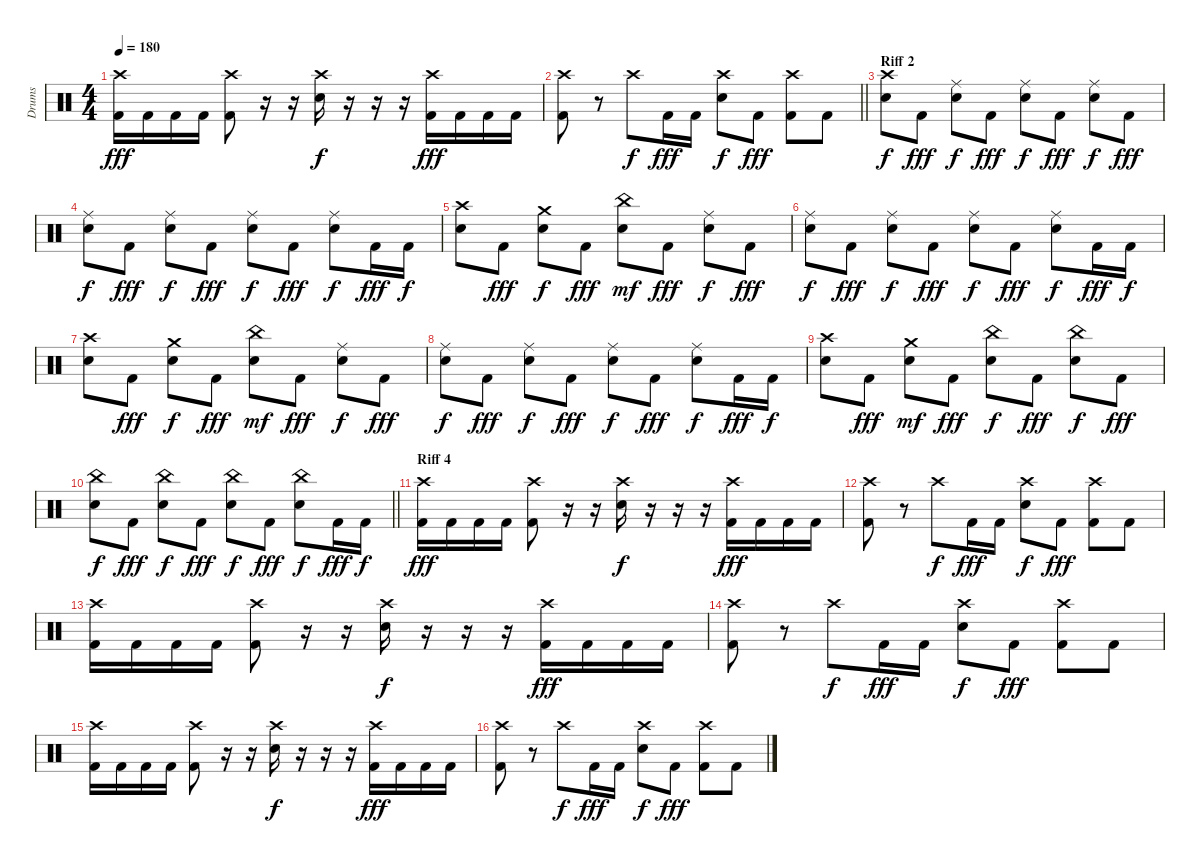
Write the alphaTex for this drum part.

\track ("Drums" "Drums") {instrument percussion}
\staff {score}
\articulation defaults
\ts (4 4)
\tempo 180
\clef neutral
\ks c
("Crash high (hit)" "Kick (hit) 2").16{dy fff} "Kick (hit) 2".16 "Kick (hit) 2".16 "Kick (hit) 2".16 ("Crash high (hit)" "Kick (hit) 2").8 r.16 r.16 ("Crash high (hit)" "Electric Snare (hit)").16{dy f} r.16 r.16 r.16 ("Crash high (hit)" "Kick (hit) 2").16{dy fff} "Kick (hit) 2".16 "Kick (hit) 2".16 "Kick (hit) 2".16 |
\barLineRight lightlight
("Crash high (hit)" "Kick (hit) 2").8 r.8 "Crash high (hit)".8{dy f} "Kick (hit) 2".16{dy fff} "Kick (hit) 2".16 ("Crash high (hit)" "Electric Snare (hit)").8{dy f} "Kick (hit) 2".8{dy fff} ("Crash high (hit)" "Kick (hit) 2").8 "Kick (hit) 2".8 |
\section ("" "Riff 2")
("Crash high (hit)" "Electric Snare (hit)").8{dy f} "Kick (hit) 2".8{dy fff} ("Ride (middle)" "Electric Snare (hit)").8{dy f} "Kick (hit) 2".8{dy fff} ("Ride (middle)" "Electric Snare (hit)").8{dy f} "Kick (hit) 2".8{dy fff} ("Ride (middle)" "Electric Snare (hit)").8{dy f} "Kick (hit) 2".8{dy fff} |
("Ride (middle)" "Electric Snare (hit)").8{dy f} "Kick (hit) 2".8{dy fff} ("Ride (middle)" "Electric Snare (hit)").8{dy f} "Kick (hit) 2".8{dy fff} ("Ride (middle)" "Electric Snare (hit)").8{dy f} "Kick (hit) 2".8{dy fff} ("Ride (middle)" "Electric Snare (hit)").8{dy f} "Kick (hit) 2".16{dy fff} "Kick (hit) 2".16{dy f} |
("Crash high (hit)" "Electric Snare (hit)").8 "Kick (hit) 2".8{dy fff} ("Crash medium (hit)" "Electric Snare (hit)").8{dy f} "Kick (hit) 2".8{dy fff} ("China (hit)" "Electric Snare (hit)").8{dy mf} "Kick (hit) 2".8{dy fff} ("Ride (middle)" "Electric Snare (hit)").8{dy f} "Kick (hit) 2".8{dy fff} |
("Ride (middle)" "Electric Snare (hit)").8{dy f} "Kick (hit) 2".8{dy fff} ("Ride (middle)" "Electric Snare (hit)").8{dy f} "Kick (hit) 2".8{dy fff} ("Ride (middle)" "Electric Snare (hit)").8{dy f} "Kick (hit) 2".8{dy fff} ("Ride (middle)" "Electric Snare (hit)").8{dy f} "Kick (hit) 2".16{dy fff} "Kick (hit) 2".16{dy f} |
("Crash high (hit)" "Electric Snare (hit)").8 "Kick (hit) 2".8{dy fff} ("Crash medium (hit)" "Electric Snare (hit)").8{dy f} "Kick (hit) 2".8{dy fff} ("China (hit)" "Electric Snare (hit)").8{dy mf} "Kick (hit) 2".8{dy fff} ("Ride (middle)" "Electric Snare (hit)").8{dy f} "Kick (hit) 2".8{dy fff} |
("Ride (middle)" "Electric Snare (hit)").8{dy f} "Kick (hit) 2".8{dy fff} ("Ride (middle)" "Electric Snare (hit)").8{dy f} "Kick (hit) 2".8{dy fff} ("Ride (middle)" "Electric Snare (hit)").8{dy f} "Kick (hit) 2".8{dy fff} ("Ride (middle)" "Electric Snare (hit)").8{dy f} "Kick (hit) 2".16{dy fff} "Kick (hit) 2".16{dy f} |
("Crash high (hit)" "Electric Snare (hit)").8 "Kick (hit) 2".8{dy fff} ("Crash medium (hit)" "Electric Snare (hit)").8{dy mf} "Kick (hit) 2".8{dy fff} ("China (hit)" "Electric Snare (hit)").8{dy f} "Kick (hit) 2".8{dy fff} ("China (hit)" "Electric Snare (hit)").8{dy f} "Kick (hit) 2".8{dy fff} |
\barLineRight lightlight
("China (hit)" "Electric Snare (hit)").8{dy f} "Kick (hit) 2".8{dy fff} ("China (hit)" "Electric Snare (hit)").8{dy f} "Kick (hit) 2".8{dy fff} ("China (hit)" "Electric Snare (hit)").8{dy f} "Kick (hit) 2".8{dy fff} ("China (hit)" "Electric Snare (hit)").8{dy f} "Kick (hit) 2".16{dy fff} "Kick (hit) 2".16{dy f} |
\section ("" "Riff 4")
("Crash high (hit)" "Kick (hit) 2").16{dy fff} "Kick (hit) 2".16 "Kick (hit) 2".16 "Kick (hit) 2".16 ("Crash high (hit)" "Kick (hit) 2").8 r.16 r.16 ("Crash high (hit)" "Electric Snare (hit)").16{dy f} r.16 r.16 r.16 ("Crash high (hit)" "Kick (hit) 2").16{dy fff} "Kick (hit) 2".16 "Kick (hit) 2".16 "Kick (hit) 2".16 |
("Crash high (hit)" "Kick (hit) 2").8 r.8 "Crash high (hit)".8{dy f} "Kick (hit) 2".16{dy fff} "Kick (hit) 2".16 ("Crash high (hit)" "Electric Snare (hit)").8{dy f} "Kick (hit) 2".8{dy fff} ("Crash high (hit)" "Kick (hit) 2").8 "Kick (hit) 2".8 |
("Crash high (hit)" "Kick (hit) 2").16 "Kick (hit) 2".16 "Kick (hit) 2".16 "Kick (hit) 2".16 ("Crash high (hit)" "Kick (hit) 2").8 r.16 r.16 ("Crash high (hit)" "Electric Snare (hit)").16{dy f} r.16 r.16 r.16 ("Crash high (hit)" "Kick (hit) 2").16{dy fff} "Kick (hit) 2".16 "Kick (hit) 2".16 "Kick (hit) 2".16 |
("Crash high (hit)" "Kick (hit) 2").8 r.8 "Crash high (hit)".8{dy f} "Kick (hit) 2".16{dy fff} "Kick (hit) 2".16 ("Crash high (hit)" "Electric Snare (hit)").8{dy f} "Kick (hit) 2".8{dy fff} ("Crash high (hit)" "Kick (hit) 2").8 "Kick (hit) 2".8 |
("Crash high (hit)" "Kick (hit) 2").16 "Kick (hit) 2".16 "Kick (hit) 2".16 "Kick (hit) 2".16 ("Crash high (hit)" "Kick (hit) 2").8 r.16 r.16 ("Crash high (hit)" "Electric Snare (hit)").16{dy f} r.16 r.16 r.16 ("Crash high (hit)" "Kick (hit) 2").16{dy fff} "Kick (hit) 2".16 "Kick (hit) 2".16 "Kick (hit) 2".16 |
("Crash high (hit)" "Kick (hit) 2").8 r.8 "Crash high (hit)".8{dy f} "Kick (hit) 2".16{dy fff} "Kick (hit) 2".16 ("Crash high (hit)" "Electric Snare (hit)").8{dy f} "Kick (hit) 2".8{dy fff} ("Crash high (hit)" "Kick (hit) 2").8 "Kick (hit) 2".8
